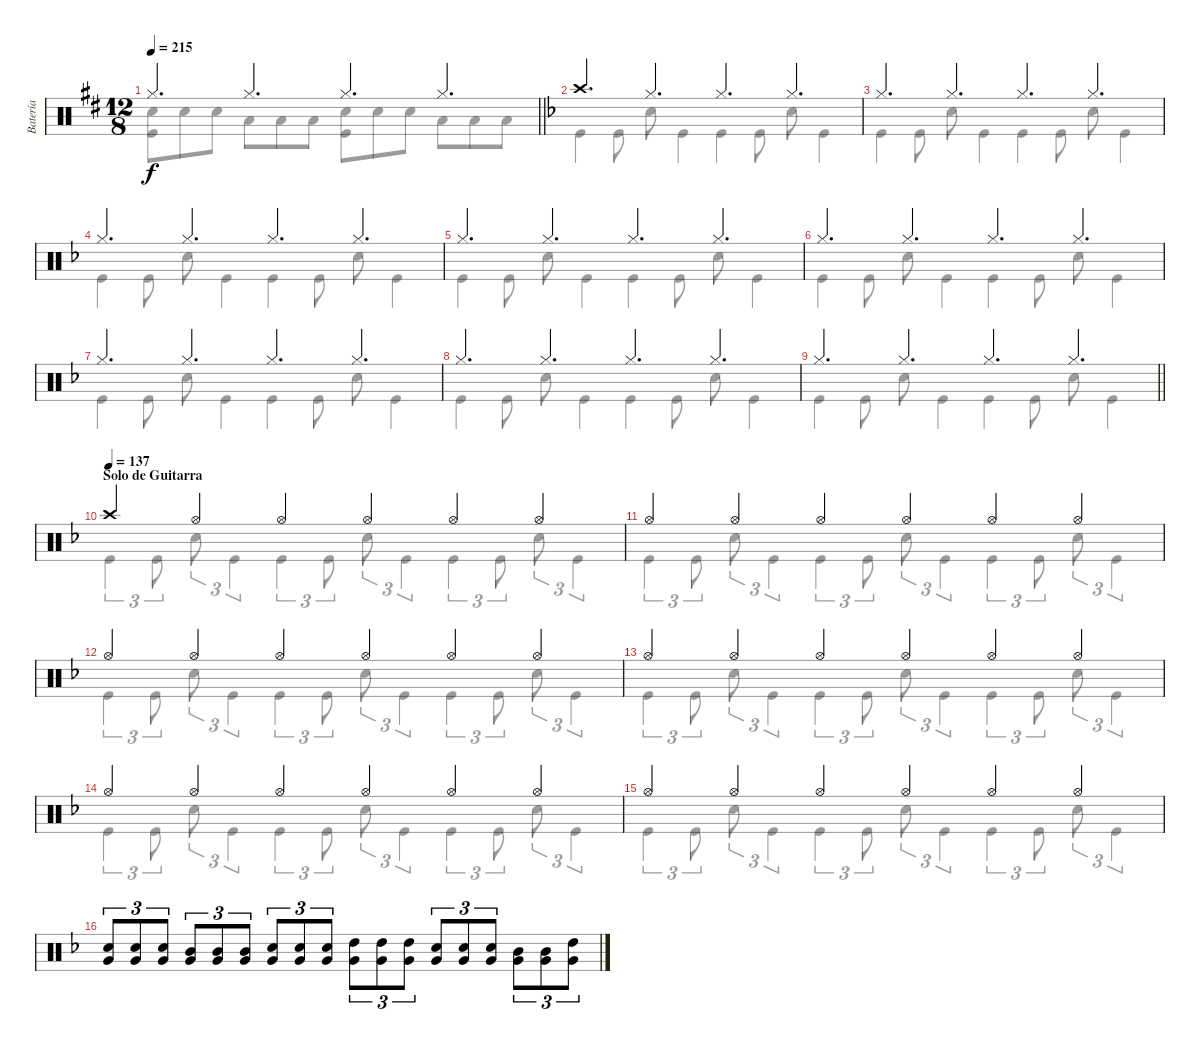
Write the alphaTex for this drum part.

\track ("Batería" "Batería") {instrument percussion}
\staff {score}
\articulation defaults
\voice
\ts (12 8)
\tempo 215
\clef neutral
\barLineRight lightlight
\ks d "Hi-Hat (closed)".4{d dy f} "Hi-Hat (closed)".4{d} "Hi-Hat (closed)".4{d} "Hi-Hat (closed)".4{d}
|
\ks f "Crash high (hit)".4{d} "Hi-Hat (closed)".4{d} "Hi-Hat (closed)".4{d} "Hi-Hat (closed)".4{d}
|
"Hi-Hat (closed)".4{d} "Hi-Hat (closed)".4{d} "Hi-Hat (closed)".4{d} "Hi-Hat (closed)".4{d} |
"Hi-Hat (closed)".4{d} "Hi-Hat (closed)".4{d} "Hi-Hat (closed)".4{d} "Hi-Hat (closed)".4{d} |
"Hi-Hat (closed)".4{d} "Hi-Hat (closed)".4{d} "Hi-Hat (closed)".4{d} "Hi-Hat (closed)".4{d} |
"Hi-Hat (closed)".4{d} "Hi-Hat (closed)".4{d} "Hi-Hat (closed)".4{d} "Hi-Hat (closed)".4{d} |
"Hi-Hat (closed)".4{d} "Hi-Hat (closed)".4{d} "Hi-Hat (closed)".4{d} "Hi-Hat (closed)".4{d} |
"Hi-Hat (closed)".4{d} "Hi-Hat (closed)".4{d} "Hi-Hat (closed)".4{d} "Hi-Hat (closed)".4{d} |
\barLineRight lightlight "Hi-Hat (closed)".4{d} "Hi-Hat (closed)".4{d} "Hi-Hat (closed)".4{d} "Hi-Hat (closed)".4{d}
|
\section ("" "Solo de Guitarra")
\tempo (137)
"Crash high (hit)".4 "Hi-Hat (open)".4 "Hi-Hat (open)".4 "Hi-Hat (open)".4 "Hi-Hat (open)".4 "Hi-Hat (open)".4 |
"Hi-Hat (open)".4 "Hi-Hat (open)".4 "Hi-Hat (open)".4 "Hi-Hat (open)".4 "Hi-Hat (open)".4 "Hi-Hat (open)".4 |
"Hi-Hat (open)".4 "Hi-Hat (open)".4 "Hi-Hat (open)".4 "Hi-Hat (open)".4 "Hi-Hat (open)".4 "Hi-Hat (open)".4 |
"Hi-Hat (open)".4 "Hi-Hat (open)".4 "Hi-Hat (open)".4 "Hi-Hat (open)".4 "Hi-Hat (open)".4 "Hi-Hat (open)".4 |
"Hi-Hat (open)".4 "Hi-Hat (open)".4 "Hi-Hat (open)".4 "Hi-Hat (open)".4 "Hi-Hat (open)".4 "Hi-Hat (open)".4 |
"Hi-Hat (open)".4 "Hi-Hat (open)".4 "Hi-Hat (open)".4 "Hi-Hat (open)".4 "Hi-Hat (open)".4 "Hi-Hat (open)".4 |
("Snare (hit) 2" "Very Low Tom (hit)").8{tu (3 2)} ("Snare (hit) 2" "Very Low Tom (hit)").8{tu (3 2)} ("Snare (hit) 2" "Very Low Tom (hit)").8{tu (3 2)} ("Mid Tom (hit)" "Very Low Tom (hit)").8{tu (3 2)} ("Mid Tom (hit)" "Very Low Tom (hit)").8{tu (3 2)} ("Mid Tom (hit)" "Very Low Tom (hit)").8{tu (3 2)} ("Snare (hit) 2" "Very Low Tom (hit)").8{tu (3 2)} ("Snare (hit) 2" "Very Low Tom (hit)").8{tu (3 2)} ("Snare (hit) 2" "Very Low Tom (hit)").8{tu (3 2)} ("High Tom (hit)" "Very Low Tom (hit)").8{tu (3 2)} ("High Tom (hit)" "Very Low Tom (hit)").8{tu (3 2)} ("High Tom (hit)" "Very Low Tom (hit)").8{tu (3 2)} ("Snare (hit) 2" "Very Low Tom (hit)").8{tu (3 2)} ("Snare (hit) 2" "Very Low Tom (hit)").8{tu (3 2)} ("Snare (hit) 2" "Very Low Tom (hit)").8{tu (3 2)} ("Mid Tom (hit)" "Very Low Tom (hit)").8{tu (3 2)} ("Mid Tom (hit)" "Very Low Tom (hit)").8{tu (3 2)} ("High Tom (hit)" "Very Low Tom (hit)").8{tu (3 2)}
\voice
\clef neutral
\ottava regular
\simile none
\barLineRight lightlight
\ks d
("Snare (hit) 2" "Kick (hit)").8{dy f} "Snare (hit) 2".8 "Snare (hit) 2".8 "Low Tom (hit)".8 "Low Tom (hit)".8 "Low Tom (hit)".8 ("Snare (hit) 2" "Kick (hit)").8 "Snare (hit) 2".8 "Snare (hit) 2".8 "Low Tom (hit)".8 "Low Tom (hit)".8 "Low Tom (hit)".8 |
\ks f "Kick (hit)".4 "Kick (hit)".8 "Snare (hit) 2".8 "Kick (hit)".4 "Kick (hit)".4 "Kick (hit)".8 "Snare (hit) 2".8 "Kick (hit)".4
|
"Kick (hit)".4 "Kick (hit)".8 "Snare (hit) 2".8 "Kick (hit)".4 "Kick (hit)".4 "Kick (hit)".8 "Snare (hit) 2".8 "Kick (hit)".4 |
"Kick (hit)".4 "Kick (hit)".8 "Snare (hit) 2".8 "Kick (hit)".4 "Kick (hit)".4 "Kick (hit)".8 "Snare (hit) 2".8 "Kick (hit)".4 |
"Kick (hit)".4 "Kick (hit)".8 "Snare (hit) 2".8 "Kick (hit)".4 "Kick (hit)".4 "Kick (hit)".8 "Snare (hit) 2".8 "Kick (hit)".4 |
"Kick (hit)".4 "Kick (hit)".8 "Snare (hit) 2".8 "Kick (hit)".4 "Kick (hit)".4 "Kick (hit)".8 "Snare (hit) 2".8 "Kick (hit)".4 |
"Kick (hit)".4 "Kick (hit)".8 "Snare (hit) 2".8 "Kick (hit)".4 "Kick (hit)".4 "Kick (hit)".8 "Snare (hit) 2".8 "Kick (hit)".4 |
"Kick (hit)".4 "Kick (hit)".8 "Snare (hit) 2".8 "Kick (hit)".4 "Kick (hit)".4 "Kick (hit)".8 "Snare (hit) 2".8 "Kick (hit)".4 |
\barLineRight lightlight "Kick (hit)".4 "Kick (hit)".8 "Snare (hit) 2".8 "Kick (hit)".4 "Kick (hit)".4 "Kick (hit)".8 "Snare (hit) 2".8 "Kick (hit)".4
|
"Kick (hit)".4{tu (3 2)} "Kick (hit)".8{tu (3 2)} "Snare (hit) 2".8{tu (3 2)} "Kick (hit)".4{tu (3 2)} "Kick (hit)".4{tu (3 2)} "Kick (hit)".8{tu (3 2)} "Snare (hit) 2".8{tu (3 2)} "Kick (hit)".4{tu (3 2)} "Kick (hit)".4{tu (3 2)} "Kick (hit)".8{tu (3 2)} "Snare (hit) 2".8{tu (3 2)} "Kick (hit)".4{tu (3 2)} |
"Kick (hit)".4{tu (3 2)} "Kick (hit)".8{tu (3 2)} "Snare (hit) 2".8{tu (3 2)} "Kick (hit)".4{tu (3 2)} "Kick (hit)".4{tu (3 2)} "Kick (hit)".8{tu (3 2)} "Snare (hit) 2".8{tu (3 2)} "Kick (hit)".4{tu (3 2)} "Kick (hit)".4{tu (3 2)} "Kick (hit)".8{tu (3 2)} "Snare (hit) 2".8{tu (3 2)} "Kick (hit)".4{tu (3 2)} |
"Kick (hit)".4{tu (3 2)} "Kick (hit)".8{tu (3 2)} "Snare (hit) 2".8{tu (3 2)} "Kick (hit)".4{tu (3 2)} "Kick (hit)".4{tu (3 2)} "Kick (hit)".8{tu (3 2)} "Snare (hit) 2".8{tu (3 2)} "Kick (hit)".4{tu (3 2)} "Kick (hit)".4{tu (3 2)} "Kick (hit)".8{tu (3 2)} "Snare (hit) 2".8{tu (3 2)} "Kick (hit)".4{tu (3 2)} |
"Kick (hit)".4{tu (3 2)} "Kick (hit)".8{tu (3 2)} "Snare (hit) 2".8{tu (3 2)} "Kick (hit)".4{tu (3 2)} "Kick (hit)".4{tu (3 2)} "Kick (hit)".8{tu (3 2)} "Snare (hit) 2".8{tu (3 2)} "Kick (hit)".4{tu (3 2)} "Kick (hit)".4{tu (3 2)} "Kick (hit)".8{tu (3 2)} "Snare (hit) 2".8{tu (3 2)} "Kick (hit)".4{tu (3 2)} |
"Kick (hit)".4{tu (3 2)} "Kick (hit)".8{tu (3 2)} "Snare (hit) 2".8{tu (3 2)} "Kick (hit)".4{tu (3 2)} "Kick (hit)".4{tu (3 2)} "Kick (hit)".8{tu (3 2)} "Snare (hit) 2".8{tu (3 2)} "Kick (hit)".4{tu (3 2)} "Kick (hit)".4{tu (3 2)} "Kick (hit)".8{tu (3 2)} "Snare (hit) 2".8{tu (3 2)} "Kick (hit)".4{tu (3 2)} |
"Kick (hit)".4{tu (3 2)} "Kick (hit)".8{tu (3 2)} "Snare (hit) 2".8{tu (3 2)} "Kick (hit)".4{tu (3 2)} "Kick (hit)".4{tu (3 2)} "Kick (hit)".8{tu (3 2)} "Snare (hit) 2".8{tu (3 2)} "Kick (hit)".4{tu (3 2)} "Kick (hit)".4{tu (3 2)} "Kick (hit)".8{tu (3 2)} "Snare (hit) 2".8{tu (3 2)} "Kick (hit)".4{tu (3 2)} |
